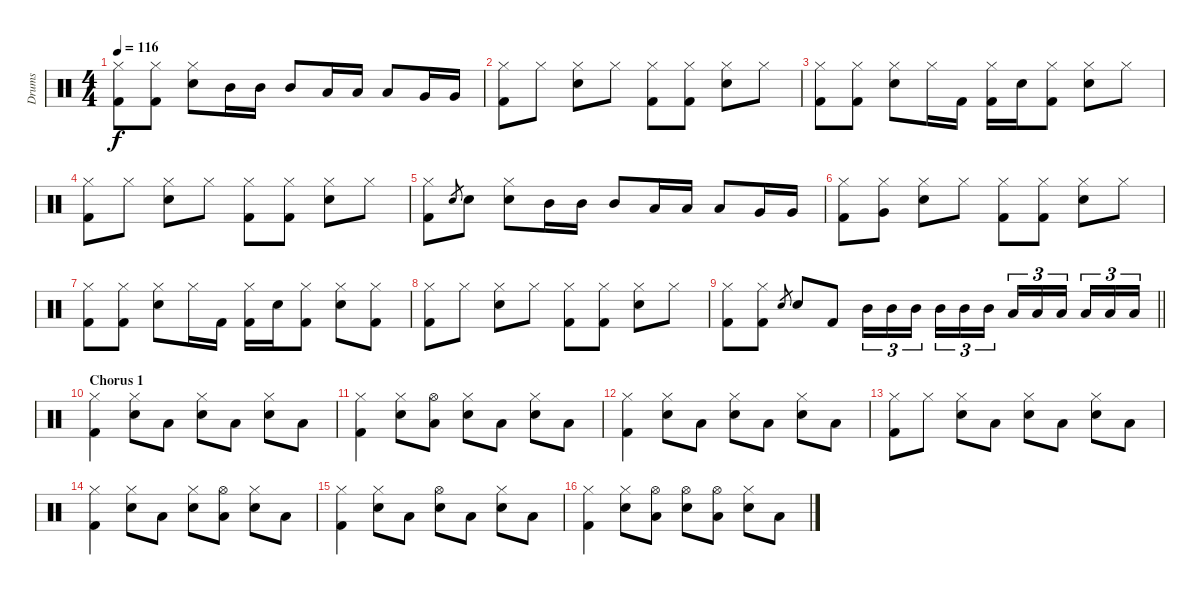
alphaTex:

\track ("Drums" "Drums") {instrument percussion}
\staff {score}
\articulation defaults
\ts (4 4)
\tempo 116
\clef neutral
\ks c
("Hi-Hat (closed)" "Kick (hit) 2").8{dy f} ("Hi-Hat (closed)" "Kick (hit) 2").8 ("Hi-Hat (closed)" "Snare (hit) 2").8 "Mid Tom (hit)".16 "Mid Tom (hit)".16 "Mid Tom (hit)".8 "Low Tom (hit)".16 "Low Tom (hit)".16 "Low Tom (hit)".8 "Very Low Tom (hit)".16 "Very Low Tom (hit)".16 |
("Hi-Hat (closed)" "Kick (hit) 2").8 "Hi-Hat (closed)".8 ("Hi-Hat (closed)" "Snare (hit) 2").8 "Hi-Hat (closed)".8 ("Hi-Hat (closed)" "Kick (hit) 2").8 ("Hi-Hat (closed)" "Kick (hit) 2").8 ("Hi-Hat (closed)" "Snare (hit) 2").8 "Hi-Hat (closed)".8 |
("Hi-Hat (closed)" "Kick (hit) 2").8 ("Hi-Hat (closed)" "Kick (hit) 2").8 ("Hi-Hat (closed)" "Snare (hit) 2").8 "Hi-Hat (closed)".16 "Kick (hit) 2".16 ("Hi-Hat (closed)" "Kick (hit) 2").16 "Snare (hit) 2".16 ("Hi-Hat (closed)" "Kick (hit) 2").8 ("Hi-Hat (closed)" "Snare (hit) 2").8 "Hi-Hat (closed)".8 |
("Hi-Hat (closed)" "Kick (hit) 2").8 "Hi-Hat (closed)".8 ("Hi-Hat (closed)" "Snare (hit) 2").8 "Hi-Hat (closed)".8 ("Hi-Hat (closed)" "Kick (hit) 2").8 ("Hi-Hat (closed)" "Kick (hit) 2").8 ("Hi-Hat (closed)" "Snare (hit) 2").8 "Hi-Hat (closed)".8 |
("Hi-Hat (closed)" "Kick (hit) 2").8 "Snare (hit) 2".8{gr} "Snare (hit) 2".8 ("Hi-Hat (closed)" "Snare (hit) 2").8 "Mid Tom (hit)".16 "Mid Tom (hit)".16 "Mid Tom (hit)".8 "Low Tom (hit)".16 "Low Tom (hit)".16 "Low Tom (hit)".8 "Very Low Tom (hit)".16 "Very Low Tom (hit)".16 |
("Hi-Hat (closed)" "Kick (hit) 2").8 ("Hi-Hat (closed)" "Very Low Tom (hit)").8 ("Hi-Hat (closed)" "Snare (hit) 2").8 "Hi-Hat (closed)".8 ("Hi-Hat (closed)" "Kick (hit) 2").8 ("Hi-Hat (closed)" "Kick (hit) 2").8 ("Hi-Hat (closed)" "Snare (hit) 2").8 "Hi-Hat (closed)".8 |
("Hi-Hat (closed)" "Kick (hit) 2").8 ("Hi-Hat (closed)" "Kick (hit) 2").8 ("Hi-Hat (closed)" "Snare (hit) 2").8 "Hi-Hat (closed)".16 "Kick (hit) 2".16 ("Hi-Hat (closed)" "Kick (hit) 2").16 "Snare (hit) 2".16 ("Hi-Hat (closed)" "Kick (hit) 2").8 ("Hi-Hat (closed)" "Snare (hit) 2").8 ("Hi-Hat (closed)" "Kick (hit) 2").8 |
("Hi-Hat (closed)" "Kick (hit) 2").8 "Hi-Hat (closed)".8 ("Hi-Hat (closed)" "Snare (hit) 2").8 "Hi-Hat (closed)".8 ("Hi-Hat (closed)" "Kick (hit) 2").8 ("Hi-Hat (closed)" "Kick (hit) 2").8 ("Hi-Hat (closed)" "Snare (hit) 2").8 "Hi-Hat (closed)".8 |
\barLineRight lightlight
("Hi-Hat (closed)" "Kick (hit) 2").8 ("Hi-Hat (closed)" "Kick (hit) 2").8 "Snare (hit) 2".8{gr} "Snare (hit) 2".8 "Kick (hit) 2".8 "Mid Tom (hit)".16{tu (3 2)} "Mid Tom (hit)".16{tu (3 2)} "Mid Tom (hit)".16{tu (3 2) beam splitsecondary} "Mid Tom (hit)".16{tu (3 2)} "Mid Tom (hit)".16{tu (3 2)} "Mid Tom (hit)".16{tu (3 2)} "Low Tom (hit)".16{tu (3 2)} "Low Tom (hit)".16{tu (3 2)} "Low Tom (hit)".16{tu (3 2) beam splitsecondary} "Low Tom (hit)".16{tu (3 2)} "Low Tom (hit)".16{tu (3 2)} "Low Tom (hit)".16{tu (3 2)} |
\section ("" "Chorus 1")
("Hi-Hat (closed)" "Kick (hit) 2").4 ("Hi-Hat (closed)" "Snare (hit) 2").8 "Low Tom (hit)".8 ("Hi-Hat (closed)" "Snare (hit) 2").8 "Low Tom (hit)".8 ("Hi-Hat (closed)" "Snare (hit) 2").8 "Low Tom (hit)".8 |
("Hi-Hat (closed)" "Kick (hit) 2").4 ("Hi-Hat (closed)" "Snare (hit) 2").8 ("Hi-Hat (open)" "Low Tom (hit)").8 ("Hi-Hat (closed)" "Snare (hit) 2").8 "Low Tom (hit)".8 ("Hi-Hat (closed)" "Snare (hit) 2").8 "Low Tom (hit)".8 |
("Hi-Hat (closed)" "Kick (hit) 2").4 ("Hi-Hat (closed)" "Snare (hit) 2").8 "Low Tom (hit)".8 ("Hi-Hat (closed)" "Snare (hit) 2").8 "Low Tom (hit)".8 ("Hi-Hat (closed)" "Snare (hit) 2").8 "Low Tom (hit)".8 |
("Hi-Hat (closed)" "Kick (hit) 2").8 "Hi-Hat (closed)".8 ("Hi-Hat (closed)" "Snare (hit) 2").8 "Low Tom (hit)".8 ("Hi-Hat (closed)" "Snare (hit) 2").8 "Low Tom (hit)".8 ("Hi-Hat (closed)" "Snare (hit) 2").8 "Low Tom (hit)".8 |
("Hi-Hat (closed)" "Kick (hit) 2").4 ("Hi-Hat (closed)" "Snare (hit) 2").8 "Low Tom (hit)".8 ("Hi-Hat (closed)" "Snare (hit) 2").8 ("Hi-Hat (open)" "Low Tom (hit)").8 ("Hi-Hat (closed)" "Snare (hit) 2").8 "Low Tom (hit)".8 |
("Hi-Hat (closed)" "Kick (hit) 2").4 ("Hi-Hat (closed)" "Snare (hit) 2").8 "Low Tom (hit)".8 ("Hi-Hat (open)" "Snare (hit) 2").8 "Low Tom (hit)".8 ("Hi-Hat (closed)" "Snare (hit) 2").8 "Low Tom (hit)".8 |
("Hi-Hat (closed)" "Kick (hit) 2").4 ("Hi-Hat (closed)" "Snare (hit) 2").8 ("Hi-Hat (open)" "Low Tom (hit)").8 ("Hi-Hat (open)" "Snare (hit) 2").8 ("Hi-Hat (open)" "Low Tom (hit)").8 ("Hi-Hat (closed)" "Snare (hit) 2").8 "Low Tom (hit)".8
